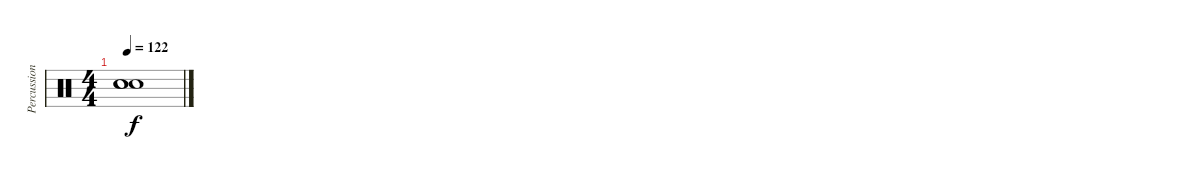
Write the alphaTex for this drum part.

\track ("Percussions" "Percussion") {instrument percussion}
\staff {score}
\articulation defaults
\ts (4 4)
\tempo 122
\clef neutral
\ks c
("Snare (hit)"{t} "Snare (hit)"{t} "Snare (hit)"{t}).1{dy f}
